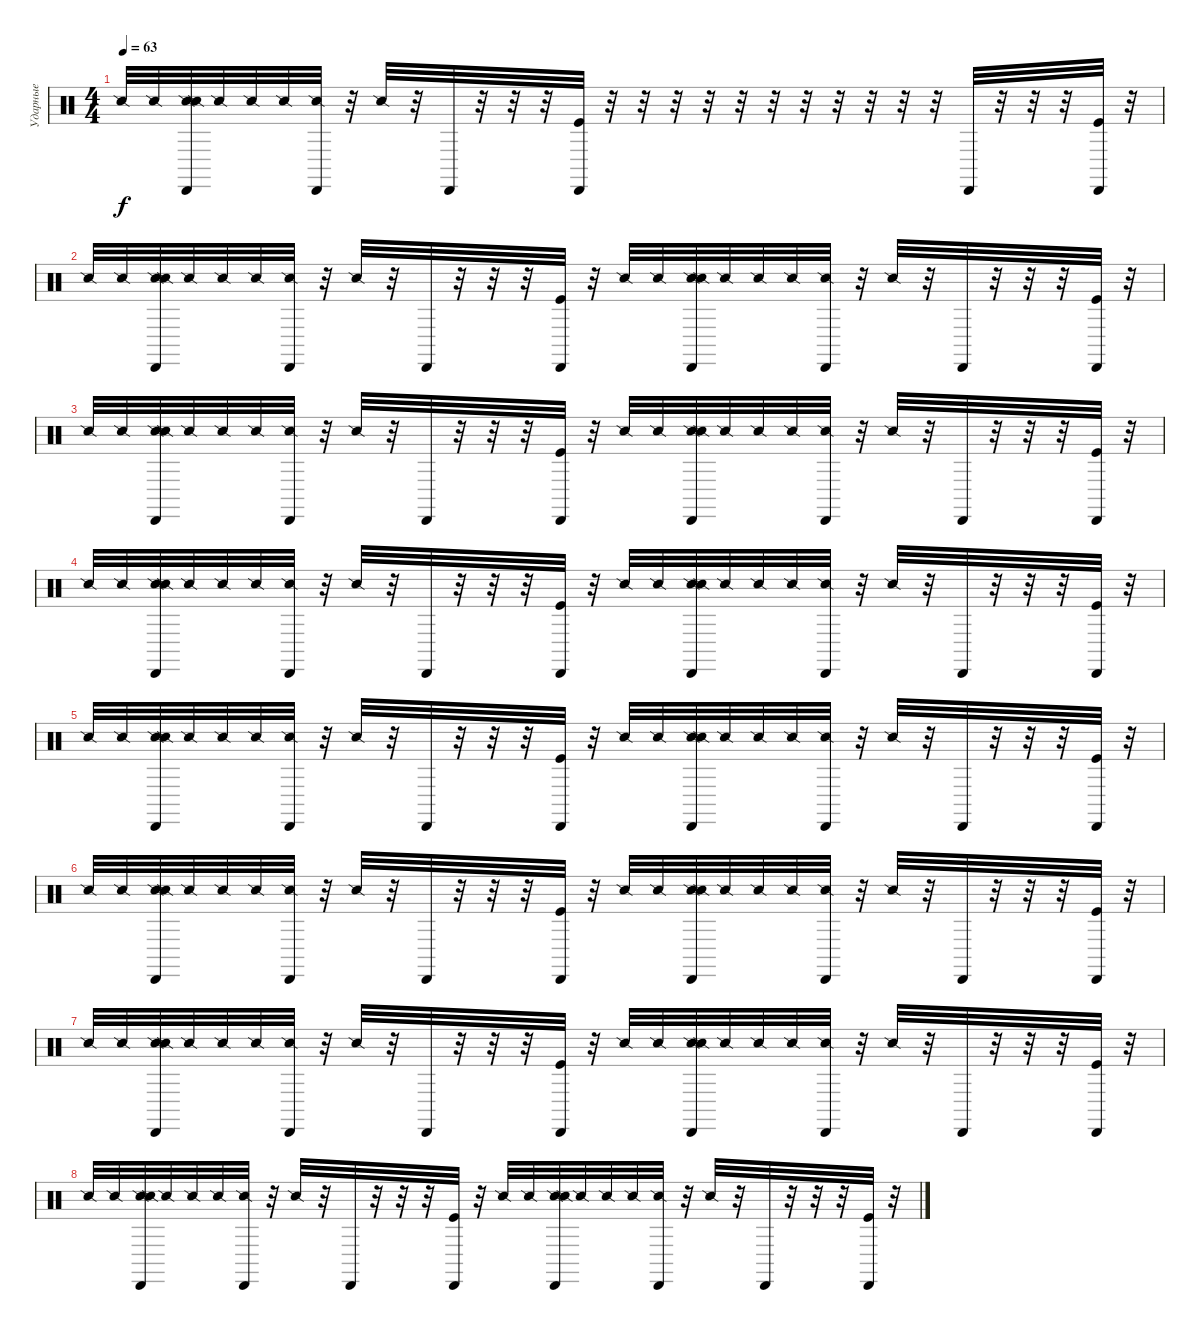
\track ("Ударные" "Ударные") {instrument percussion}
\staff {score}
\articulation defaults
\ts (4 4)
\tempo 63
\clef neutral
\ks c "Snare (side stick) 2".32{dy f} "Snare (side stick) 2".32
("Snare (side stick) 2" "Snare (side stick) 2" "Cabasa (hit)").32 "Snare (side stick) 2".32 "Snare (side stick) 2".32 "Snare (side stick) 2".32 ("Snare (side stick) 2" "Cabasa (hit)").32 r.32 "Snare (side stick) 2".32 r.32 "Cabasa (hit)".32 r.32 r.32 r.32 ("Kick (hit)" "Cabasa (hit)").32 r.32 r.32 r.32 r.32 r.32 r.32 r.32 r.32 r.32 r.32 r.32 "Cabasa (hit)".32 r.32 r.32 r.32 ("Kick (hit)" "Cabasa (hit)").32 r.32 |
"Snare (side stick) 2".32 "Snare (side stick) 2".32 ("Snare (side stick) 2" "Snare (side stick) 2" "Cabasa (hit)").32 "Snare (side stick) 2".32 "Snare (side stick) 2".32 "Snare (side stick) 2".32 ("Snare (side stick) 2" "Cabasa (hit)").32 r.32 "Snare (side stick) 2".32 r.32 "Cabasa (hit)".32 r.32 r.32 r.32 ("Kick (hit)" "Cabasa (hit)").32 r.32 "Snare (side stick) 2".32 "Snare (side stick) 2".32 ("Snare (side stick) 2" "Snare (side stick) 2" "Cabasa (hit)").32 "Snare (side stick) 2".32 "Snare (side stick) 2".32 "Snare (side stick) 2".32 ("Snare (side stick) 2" "Cabasa (hit)").32 r.32 "Snare (side stick) 2".32 r.32 "Cabasa (hit)".32 r.32 r.32 r.32 ("Kick (hit)" "Cabasa (hit)").32 r.32 |
"Snare (side stick) 2".32 "Snare (side stick) 2".32 ("Snare (side stick) 2" "Snare (side stick) 2" "Cabasa (hit)").32 "Snare (side stick) 2".32 "Snare (side stick) 2".32 "Snare (side stick) 2".32 ("Snare (side stick) 2" "Cabasa (hit)").32 r.32 "Snare (side stick) 2".32 r.32 "Cabasa (hit)".32 r.32 r.32 r.32 ("Kick (hit)" "Cabasa (hit)").32 r.32 "Snare (side stick) 2".32 "Snare (side stick) 2".32 ("Snare (side stick) 2" "Snare (side stick) 2" "Cabasa (hit)").32 "Snare (side stick) 2".32 "Snare (side stick) 2".32 "Snare (side stick) 2".32 ("Snare (side stick) 2" "Cabasa (hit)").32 r.32 "Snare (side stick) 2".32 r.32 "Cabasa (hit)".32 r.32 r.32 r.32 ("Kick (hit)" "Cabasa (hit)").32 r.32 |
"Snare (side stick) 2".32 "Snare (side stick) 2".32 ("Snare (side stick) 2" "Snare (side stick) 2" "Cabasa (hit)").32 "Snare (side stick) 2".32 "Snare (side stick) 2".32 "Snare (side stick) 2".32 ("Snare (side stick) 2" "Cabasa (hit)").32 r.32 "Snare (side stick) 2".32 r.32 "Cabasa (hit)".32 r.32 r.32 r.32 ("Kick (hit)" "Cabasa (hit)").32 r.32 "Snare (side stick) 2".32 "Snare (side stick) 2".32 ("Snare (side stick) 2" "Snare (side stick) 2" "Cabasa (hit)").32 "Snare (side stick) 2".32 "Snare (side stick) 2".32 "Snare (side stick) 2".32 ("Snare (side stick) 2" "Cabasa (hit)").32 r.32 "Snare (side stick) 2".32 r.32 "Cabasa (hit)".32 r.32 r.32 r.32 ("Kick (hit)" "Cabasa (hit)").32 r.32 |
"Snare (side stick) 2".32 "Snare (side stick) 2".32 ("Snare (side stick) 2" "Snare (side stick) 2" "Cabasa (hit)").32 "Snare (side stick) 2".32 "Snare (side stick) 2".32 "Snare (side stick) 2".32 ("Snare (side stick) 2" "Cabasa (hit)").32 r.32 "Snare (side stick) 2".32 r.32 "Cabasa (hit)".32 r.32 r.32 r.32 ("Kick (hit)" "Cabasa (hit)").32 r.32 "Snare (side stick) 2".32 "Snare (side stick) 2".32 ("Snare (side stick) 2" "Snare (side stick) 2" "Cabasa (hit)").32 "Snare (side stick) 2".32 "Snare (side stick) 2".32 "Snare (side stick) 2".32 ("Snare (side stick) 2" "Cabasa (hit)").32 r.32 "Snare (side stick) 2".32 r.32 "Cabasa (hit)".32 r.32 r.32 r.32 ("Kick (hit)" "Cabasa (hit)").32 r.32 |
"Snare (side stick) 2".32 "Snare (side stick) 2".32 ("Snare (side stick) 2" "Snare (side stick) 2" "Cabasa (hit)").32 "Snare (side stick) 2".32 "Snare (side stick) 2".32 "Snare (side stick) 2".32 ("Snare (side stick) 2" "Cabasa (hit)").32 r.32 "Snare (side stick) 2".32 r.32 "Cabasa (hit)".32 r.32 r.32 r.32 ("Kick (hit)" "Cabasa (hit)").32 r.32 "Snare (side stick) 2".32 "Snare (side stick) 2".32 ("Snare (side stick) 2" "Snare (side stick) 2" "Cabasa (hit)").32 "Snare (side stick) 2".32 "Snare (side stick) 2".32 "Snare (side stick) 2".32 ("Snare (side stick) 2" "Cabasa (hit)").32 r.32 "Snare (side stick) 2".32 r.32 "Cabasa (hit)".32 r.32 r.32 r.32 ("Kick (hit)" "Cabasa (hit)").32 r.32 |
"Snare (side stick) 2".32 "Snare (side stick) 2".32 ("Snare (side stick) 2" "Snare (side stick) 2" "Cabasa (hit)").32 "Snare (side stick) 2".32 "Snare (side stick) 2".32 "Snare (side stick) 2".32 ("Snare (side stick) 2" "Cabasa (hit)").32 r.32 "Snare (side stick) 2".32 r.32 "Cabasa (hit)".32 r.32 r.32 r.32 ("Kick (hit)" "Cabasa (hit)").32 r.32 "Snare (side stick) 2".32 "Snare (side stick) 2".32 ("Snare (side stick) 2" "Snare (side stick) 2" "Cabasa (hit)").32 "Snare (side stick) 2".32 "Snare (side stick) 2".32 "Snare (side stick) 2".32 ("Snare (side stick) 2" "Cabasa (hit)").32 r.32 "Snare (side stick) 2".32 r.32 "Cabasa (hit)".32 r.32 r.32 r.32 ("Kick (hit)" "Cabasa (hit)").32 r.32 |
"Snare (side stick) 2".32 "Snare (side stick) 2".32 ("Snare (side stick) 2" "Snare (side stick) 2" "Cabasa (hit)").32 "Snare (side stick) 2".32 "Snare (side stick) 2".32 "Snare (side stick) 2".32 ("Snare (side stick) 2" "Cabasa (hit)").32 r.32 "Snare (side stick) 2".32 r.32 "Cabasa (hit)".32 r.32 r.32 r.32 ("Kick (hit)" "Cabasa (hit)").32 r.32 "Snare (side stick) 2".32 "Snare (side stick) 2".32 ("Snare (side stick) 2" "Snare (side stick) 2" "Cabasa (hit)").32 "Snare (side stick) 2".32 "Snare (side stick) 2".32 "Snare (side stick) 2".32 ("Snare (side stick) 2" "Cabasa (hit)").32 r.32 "Snare (side stick) 2".32 r.32 "Cabasa (hit)".32 r.32 r.32 r.32 ("Kick (hit)" "Cabasa (hit)").32 r.32
